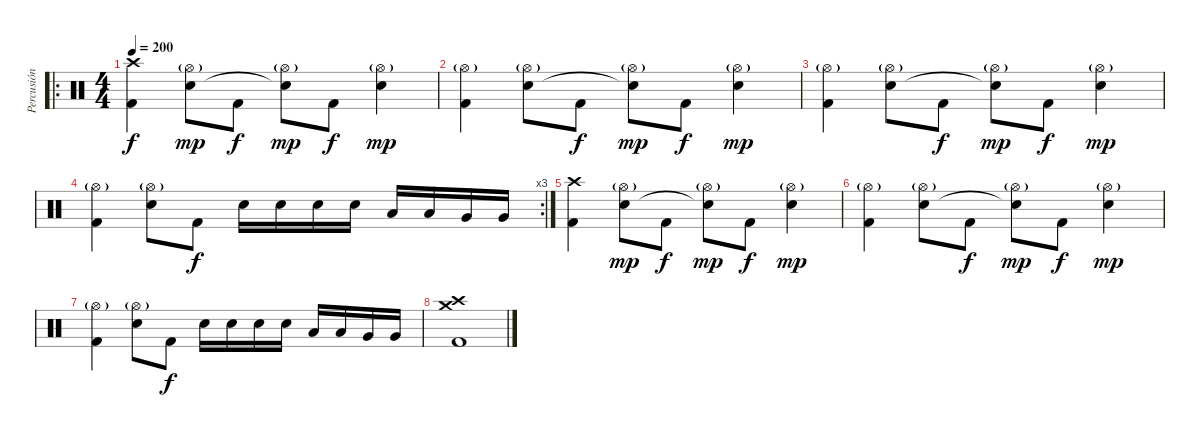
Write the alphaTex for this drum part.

\track ("Percusión" "Percusión") {instrument percussion}
\staff {score}
\articulation defaults
\ro
\ts (4 4)
\tempo 200
\clef neutral
\ks c
("Crash high (hit)" "Kick (hit) 2").4{dy f} ("Hi-Hat (open)"{g} "Snare (hit) 2").8{dy mp} "Kick (hit) 2".8{dy f} ("Hi-Hat (open)"{g} "Snare (hit)"{t}).8{dy mp} "Kick (hit) 2".8{dy f} ("Hi-Hat (open)"{g} "Snare (hit) 2").4{dy mp} |
("Hi-Hat (open)"{g} "Kick (hit) 2").4 ("Hi-Hat (open)"{g} "Snare (hit) 2").8 "Kick (hit) 2".8{dy f} ("Hi-Hat (open)"{g} "Snare (hit)"{t}).8{dy mp} "Kick (hit) 2".8{dy f} ("Hi-Hat (open)"{g} "Snare (hit) 2").4{dy mp} |
("Hi-Hat (open)"{g} "Kick (hit) 2").4 ("Hi-Hat (open)"{g} "Snare (hit) 2").8 "Kick (hit) 2".8{dy f} ("Hi-Hat (open)"{g} "Snare (hit)"{t}).8{dy mp} "Kick (hit) 2".8{dy f} ("Hi-Hat (open)"{g} "Snare (hit) 2").4{dy mp} |
\rc 3
("Hi-Hat (open)"{g} "Kick (hit) 2").4 ("Hi-Hat (open)"{g} "Snare (hit) 2").8 "Kick (hit) 2".8{dy f} "Snare (hit) 2".16 "Snare (hit) 2".16 "Snare (hit) 2".16 "Snare (hit) 2".16 "Low Tom (hit)".16 "Low Tom (hit)".16 "Very Low Tom (hit)".16 "Very Low Tom (hit)".16 |
("Crash high (hit)" "Kick (hit) 2").4 ("Hi-Hat (open)"{g} "Snare (hit) 2").8{dy mp} "Kick (hit) 2".8{dy f} ("Hi-Hat (open)"{g} "Snare (hit)"{t}).8{dy mp} "Kick (hit) 2".8{dy f} ("Hi-Hat (open)"{g} "Snare (hit) 2").4{dy mp} |
("Hi-Hat (open)"{g} "Kick (hit) 2").4 ("Hi-Hat (open)"{g} "Snare (hit) 2").8 "Kick (hit) 2".8{dy f} ("Hi-Hat (open)"{g} "Snare (hit)"{t}).8{dy mp} "Kick (hit) 2".8{dy f} ("Hi-Hat (open)"{g} "Snare (hit) 2").4{dy mp} |
("Hi-Hat (open)"{g} "Kick (hit) 2").4 ("Hi-Hat (open)"{g} "Snare (hit) 2").8 "Kick (hit) 2".8{dy f} "Snare (hit) 2".16 "Snare (hit) 2".16 "Snare (hit) 2".16 "Snare (hit) 2".16 "Low Tom (hit)".16 "Low Tom (hit)".16 "Very Low Tom (hit)".16 "Very Low Tom (hit)".16 |
("Crash medium (hit)" "Crash high (hit)" "Kick (hit) 2").1
